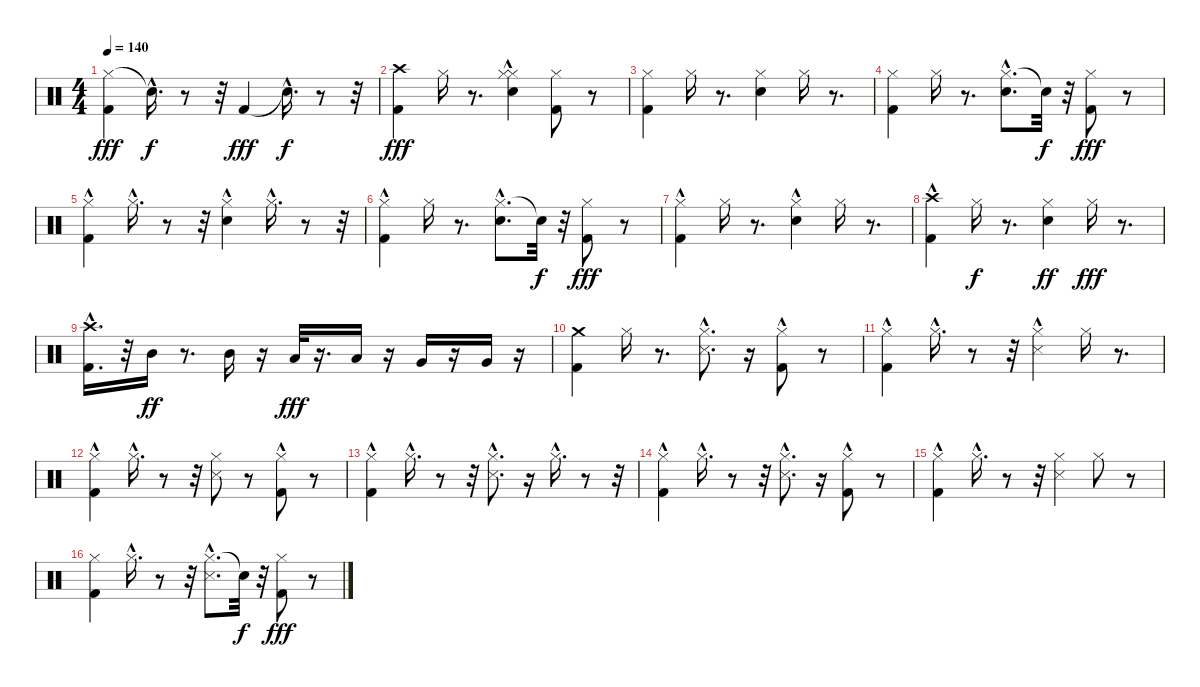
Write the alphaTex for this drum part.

\track "" {instrument percussion}
\staff {score}
\articulation defaults
\ts (4 4)
\tempo 140
\clef neutral
\ks c
("Hi-Hat (closed)" "Kick (hit) 2").4{dy fff} "Snare (hit)"{hac t}.16{d dy f} r.8 r.32 "Kick (hit) 2".4{dy fff} "Snare (hit)"{hac t}.16{d dy f} r.8 r.32 |
("Crash high (hit)" "Kick (hit) 2").4{dy fff} "Hi-Hat (closed)".16 r.8{d} ("Hi-Hat (closed)"{hac} "Hi-Hat (closed)"{hac} "Snare (hit) 2").4 ("Kick (hit) 2" "Hi-Hat (closed)").8 r.8 |
("Kick (hit) 2" "Hi-Hat (closed)").4 "Hi-Hat (closed)".16 r.8{d} ("Hi-Hat (closed)" "Snare (hit) 2").4 "Hi-Hat (closed)".16 r.8{d} |
("Hi-Hat (closed)" "Kick (hit) 2").4 "Hi-Hat (closed)".16 r.8{d} ("Hi-Hat (closed)" "Snare (hit) 2"{hac}).8{d} "Snare (hit)"{t}.32{dy f} r.32 ("Hi-Hat (closed)" "Kick (hit) 2").8{dy fff} r.8 |
("Hi-Hat (closed)"{hac} "Kick (hit) 2").4 "Hi-Hat (closed)"{hac}.16{d} r.8 r.32 ("Snare (hit) 2" "Hi-Hat (closed)"{hac}).4 "Hi-Hat (closed)"{hac}.16{d} r.8 r.32 |
("Hi-Hat (closed)"{hac} "Kick (hit) 2").4 "Hi-Hat (closed)".16 r.8{d} ("Hi-Hat (closed)" "Snare (hit) 2"{hac}).8{d} "Snare (hit)"{t}.32{dy f} r.32 ("Kick (hit) 2" "Hi-Hat (closed)").8{dy fff} r.8 |
("Hi-Hat (closed)"{hac} "Kick (hit) 2").4 "Hi-Hat (closed)".16 r.8{d} ("Snare (hit) 2"{hac} "Hi-Hat (closed)").4 "Hi-Hat (closed)".16 r.8{d} |
("Crash high (hit)" "Kick (hit) 2"{hac}).4 "Hi-Hat (closed)".16{dy f} r.8{d} ("Snare (hit) 2" "Hi-Hat (closed)").4{dy ff} "Hi-Hat (closed)".16{dy fff} r.8{d} |
("Crash high (hit)" "Kick (hit) 2"{hac}).16{d} r.32 "Mid Tom (hit)".16{dy ff} r.8{d} "Mid Tom (hit)".16 r.16 "Low Tom (hit)".32{dy fff} r.16{d} "Low Tom (hit)".16 r.16 "Very Low Tom (hit)".16 r.16 "Very Low Tom (hit)".16 r.16 |
("Kick (hit) 2" "Crash medium (hit)").4 "Hi-Hat (closed)".16 r.8{d} ("Snare (side stick) 3"{hac} "Hi-Hat (closed)"{hac}).8{d} r.16 ("Hi-Hat (closed)"{hac} "Kick (hit) 2").8 r.8 |
("Kick (hit) 2" "Hi-Hat (closed)"{hac}).4 "Hi-Hat (closed)"{hac}.16{d} r.8 r.32 ("Hi-Hat (closed)"{hac} "Snare (side stick) 3").4 "Hi-Hat (closed)".16 r.8{d} |
("Hi-Hat (closed)"{hac} "Kick (hit) 2").4 "Hi-Hat (closed)"{hac}.16{d} r.8 r.32 ("Hi-Hat (closed)" "Snare (side stick) 3").8 r.8 ("Hi-Hat (closed)"{hac} "Kick (hit) 2").8 r.8 |
("Hi-Hat (closed)"{hac} "Kick (hit) 2").4 "Hi-Hat (closed)"{hac}.16{d} r.8 r.32 ("Hi-Hat (closed)" "Snare (side stick) 3"{hac}).8{d} r.16 "Hi-Hat (closed)"{hac}.16{d} r.8 r.32 |
("Hi-Hat (closed)"{hac} "Kick (hit) 2").4 "Hi-Hat (closed)"{hac}.16{d} r.8 r.32 ("Hi-Hat (closed)"{hac} "Snare (side stick) 3"{hac}).8{d} r.16 ("Hi-Hat (closed)"{hac} "Kick (hit) 2").8 r.8 |
("Hi-Hat (closed)"{hac} "Kick (hit) 2").4 "Hi-Hat (closed)"{hac}.16{d} r.8 r.32 ("Hi-Hat (closed)" "Snare (side stick) 3").4 "Hi-Hat (closed)".8 r.8 |
("Kick (hit) 2" "Hi-Hat (closed)").4 "Hi-Hat (closed)"{hac}.16{d} r.8 r.32 ("Hi-Hat (closed)"{hac} "Snare (side stick) 3"{hac}).8{d} "Snare (hit)"{t}.32{dy f} r.32 ("Kick (hit) 2" "Hi-Hat (closed)").8{dy fff} r.8
